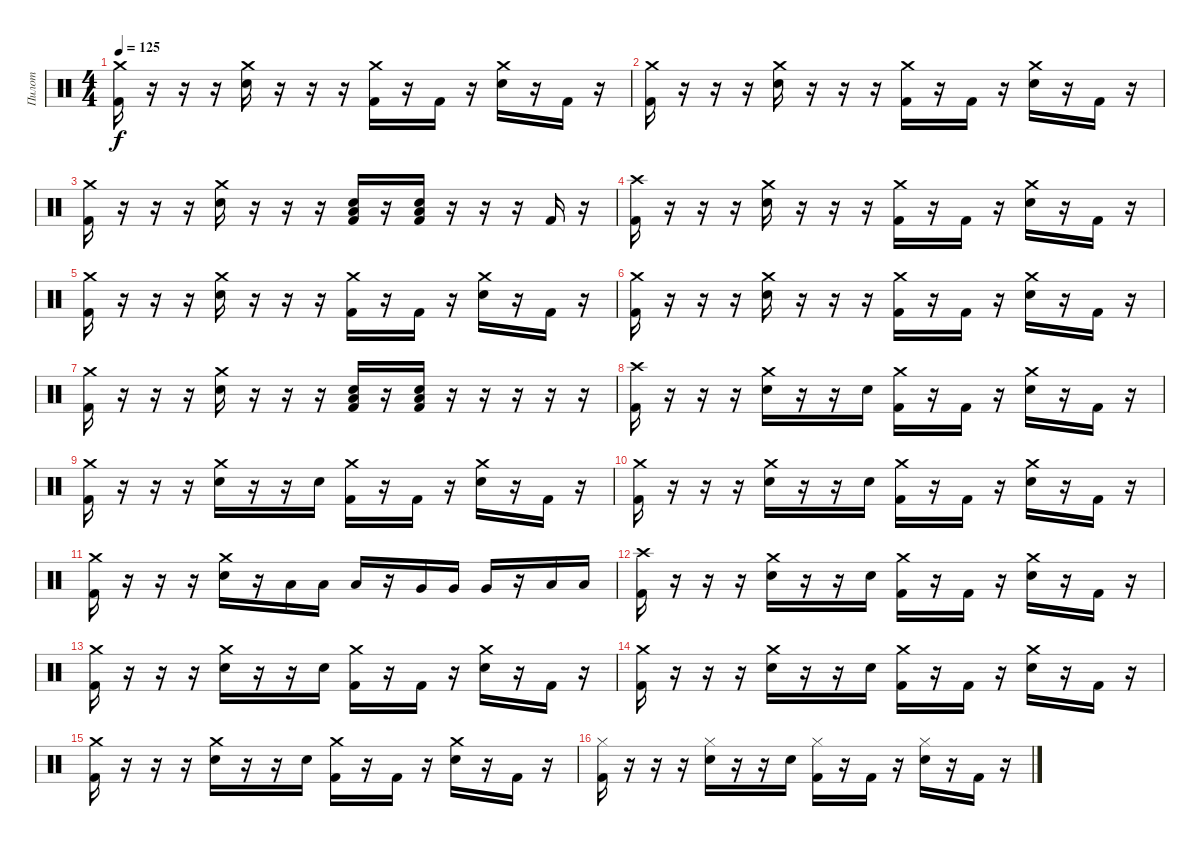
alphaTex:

\track ("Пилот" "Пилот") {instrument percussion}
\staff {score}
\articulation defaults
\ts (4 4)
\tempo 125
\clef neutral
\ks c
("Crash medium (hit)" "Kick (hit) 2").16{dy f} r.16 r.16 r.16 ("Crash medium (hit)" "Electric Snare (hit)").16 r.16 r.16 r.16 ("Crash medium (hit)" "Kick (hit) 2").16 r.16 "Kick (hit) 2".16 r.16 ("Crash medium (hit)" "Electric Snare (hit)").16 r.16 "Kick (hit) 2".16 r.16 |
("Crash medium (hit)" "Kick (hit) 2").16 r.16 r.16 r.16 ("Crash medium (hit)" "Electric Snare (hit)").16 r.16 r.16 r.16 ("Crash medium (hit)" "Kick (hit) 2").16 r.16 "Kick (hit) 2".16 r.16 ("Crash medium (hit)" "Electric Snare (hit)").16 r.16 "Kick (hit) 2".16 r.16 |
("Crash medium (hit)" "Kick (hit) 2").16 r.16 r.16 r.16 ("Crash medium (hit)" "Electric Snare (hit)").16 r.16 r.16 r.16 ("Low Floor Tom (hit)" "Electric Snare (hit)" "Kick (hit) 2").16 r.16 ("Low Floor Tom (hit)" "Electric Snare (hit)" "Kick (hit) 2").16 r.16 r.16 r.16 "Kick (hit) 2".16 r.16 |
("Crash high (hit)" "Kick (hit) 2").16 r.16 r.16 r.16 ("Crash medium (hit)" "Electric Snare (hit)").16 r.16 r.16 r.16 ("Crash medium (hit)" "Kick (hit) 2").16 r.16 "Kick (hit) 2".16 r.16 ("Crash medium (hit)" "Electric Snare (hit)").16 r.16 "Kick (hit) 2".16 r.16 |
("Crash medium (hit)" "Kick (hit) 2").16 r.16 r.16 r.16 ("Crash medium (hit)" "Electric Snare (hit)").16 r.16 r.16 r.16 ("Crash medium (hit)" "Kick (hit) 2").16 r.16 "Kick (hit) 2".16 r.16 ("Crash medium (hit)" "Electric Snare (hit)").16 r.16 "Kick (hit) 2".16 r.16 |
("Crash medium (hit)" "Kick (hit) 2").16 r.16 r.16 r.16 ("Crash medium (hit)" "Electric Snare (hit)").16 r.16 r.16 r.16 ("Crash medium (hit)" "Kick (hit) 2").16 r.16 "Kick (hit) 2".16 r.16 ("Crash medium (hit)" "Electric Snare (hit)").16 r.16 "Kick (hit) 2".16 r.16 |
("Crash medium (hit)" "Kick (hit) 2").16 r.16 r.16 r.16 ("Crash medium (hit)" "Electric Snare (hit)").16 r.16 r.16 r.16 ("Low Floor Tom (hit)" "Electric Snare (hit)" "Kick (hit) 2").16 r.16 ("Low Floor Tom (hit)" "Electric Snare (hit)" "Kick (hit) 2").16 r.16 r.16 r.16 r.16 r.16 |
("Crash high (hit)" "Kick (hit) 2").16 r.16 r.16 r.16 ("Crash medium (hit)" "Electric Snare (hit)").16 r.16 r.16 "Electric Snare (hit)".16 ("Crash medium (hit)" "Kick (hit) 2").16 r.16 "Kick (hit) 2".16 r.16 ("Crash medium (hit)" "Electric Snare (hit)").16 r.16 "Kick (hit) 2".16 r.16 |
("Crash medium (hit)" "Kick (hit) 2").16 r.16 r.16 r.16 ("Crash medium (hit)" "Electric Snare (hit)").16 r.16 r.16 "Electric Snare (hit)".16 ("Crash medium (hit)" "Kick (hit) 2").16 r.16 "Kick (hit) 2".16 r.16 ("Crash medium (hit)" "Electric Snare (hit)").16 r.16 "Kick (hit) 2".16 r.16 |
("Crash medium (hit)" "Kick (hit) 2").16 r.16 r.16 r.16 ("Crash medium (hit)" "Electric Snare (hit)").16 r.16 r.16 "Electric Snare (hit)".16 ("Crash medium (hit)" "Kick (hit) 2").16 r.16 "Kick (hit) 2".16 r.16 ("Crash medium (hit)" "Electric Snare (hit)").16 r.16 "Kick (hit) 2".16 r.16 |
("Crash medium (hit)" "Kick (hit) 2").16 r.16 r.16 r.16 ("Crash medium (hit)" "Electric Snare (hit)").16 r.16 "Low Tom (hit)".16 "Low Tom (hit)".16 "Low Tom (hit)".16 r.16 "Very Low Tom (hit)".16 "Very Low Tom (hit)".16 "Very Low Tom (hit)".16 r.16 "Low Floor Tom (hit)".16 "Low Floor Tom (hit)".16 |
("Crash high (hit)" "Kick (hit) 2").16 r.16 r.16 r.16 ("Crash medium (hit)" "Electric Snare (hit)").16 r.16 r.16 "Electric Snare (hit)".16 ("Crash medium (hit)" "Kick (hit) 2").16 r.16 "Kick (hit) 2".16 r.16 ("Crash medium (hit)" "Electric Snare (hit)").16 r.16 "Kick (hit) 2".16 r.16 |
("Crash medium (hit)" "Kick (hit) 2").16 r.16 r.16 r.16 ("Crash medium (hit)" "Electric Snare (hit)").16 r.16 r.16 "Electric Snare (hit)".16 ("Crash medium (hit)" "Kick (hit) 2").16 r.16 "Kick (hit) 2".16 r.16 ("Crash medium (hit)" "Electric Snare (hit)").16 r.16 "Kick (hit) 2".16 r.16 |
("Crash medium (hit)" "Kick (hit) 2").16 r.16 r.16 r.16 ("Crash medium (hit)" "Electric Snare (hit)").16 r.16 r.16 "Electric Snare (hit)".16 ("Crash medium (hit)" "Kick (hit) 2").16 r.16 "Kick (hit) 2".16 r.16 ("Crash medium (hit)" "Electric Snare (hit)").16 r.16 "Kick (hit) 2".16 r.16 |
("Crash medium (hit)" "Kick (hit) 2").16 r.16 r.16 r.16 ("Crash medium (hit)" "Electric Snare (hit)").16 r.16 r.16 "Electric Snare (hit)".16 ("Crash medium (hit)" "Kick (hit) 2").16 r.16 "Kick (hit) 2".16 r.16 ("Crash medium (hit)" "Electric Snare (hit)").16 r.16 "Kick (hit) 2".16 r.16 |
("Hi-Hat (closed)" "Kick (hit) 2").16 r.16 r.16 r.16 ("Hi-Hat (closed)" "Electric Snare (hit)").16 r.16 r.16 "Electric Snare (hit)".16 ("Hi-Hat (closed)" "Kick (hit) 2").16 r.16 "Kick (hit) 2".16 r.16 ("Hi-Hat (closed)" "Electric Snare (hit)").16 r.16 "Kick (hit) 2".16 r.16
